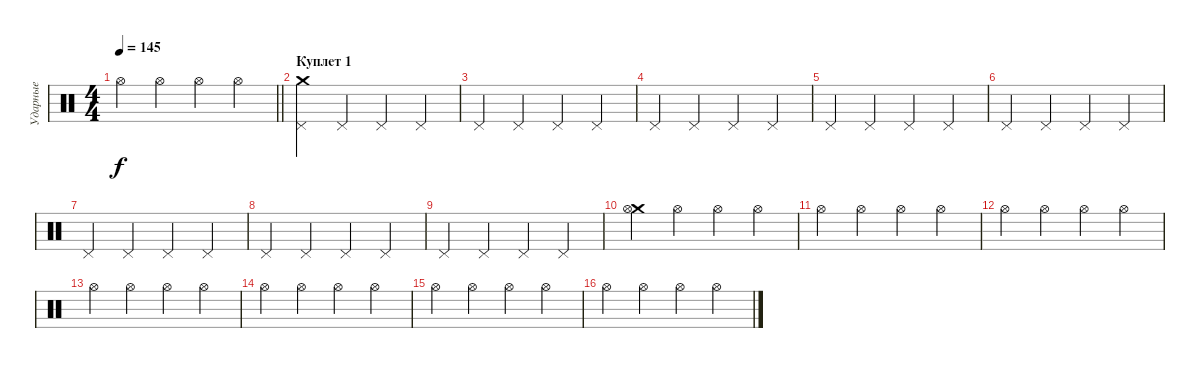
\track ("Ударные" "Ударные") {instrument percussion}
\staff {score}
\articulation defaults
\ts (4 4)
\tempo 145
\clef neutral
\barLineRight lightlight
\ks c "Hi-Hat (open)".4{dy f} "Hi-Hat (open)".4 "Hi-Hat (open)".4 "Hi-Hat (open)".4
|
\section ("" "Куплет 1")
("Crash medium (hit)" "Pedal Hi-Hat (hit)").4 "Pedal Hi-Hat (hit)".4 "Pedal Hi-Hat (hit)".4 "Pedal Hi-Hat (hit)".4 |
"Pedal Hi-Hat (hit)".4 "Pedal Hi-Hat (hit)".4 "Pedal Hi-Hat (hit)".4 "Pedal Hi-Hat (hit)".4 |
"Pedal Hi-Hat (hit)".4 "Pedal Hi-Hat (hit)".4 "Pedal Hi-Hat (hit)".4 "Pedal Hi-Hat (hit)".4 |
"Pedal Hi-Hat (hit)".4 "Pedal Hi-Hat (hit)".4 "Pedal Hi-Hat (hit)".4 "Pedal Hi-Hat (hit)".4 |
"Pedal Hi-Hat (hit)".4 "Pedal Hi-Hat (hit)".4 "Pedal Hi-Hat (hit)".4 "Pedal Hi-Hat (hit)".4 |
"Pedal Hi-Hat (hit)".4 "Pedal Hi-Hat (hit)".4 "Pedal Hi-Hat (hit)".4 "Pedal Hi-Hat (hit)".4 |
"Pedal Hi-Hat (hit)".4 "Pedal Hi-Hat (hit)".4 "Pedal Hi-Hat (hit)".4 "Pedal Hi-Hat (hit)".4 |
"Pedal Hi-Hat (hit)".4 "Pedal Hi-Hat (hit)".4 "Pedal Hi-Hat (hit)".4 "Pedal Hi-Hat (hit)".4 |
("Crash medium (hit)" "Hi-Hat (open)").4 "Hi-Hat (open)".4 "Hi-Hat (open)".4 "Hi-Hat (open)".4 |
"Hi-Hat (open)".4 "Hi-Hat (open)".4 "Hi-Hat (open)".4 "Hi-Hat (open)".4 |
"Hi-Hat (open)".4 "Hi-Hat (open)".4 "Hi-Hat (open)".4 "Hi-Hat (open)".4 |
"Hi-Hat (open)".4 "Hi-Hat (open)".4 "Hi-Hat (open)".4 "Hi-Hat (open)".4 |
"Hi-Hat (open)".4 "Hi-Hat (open)".4 "Hi-Hat (open)".4 "Hi-Hat (open)".4 |
"Hi-Hat (open)".4 "Hi-Hat (open)".4 "Hi-Hat (open)".4 "Hi-Hat (open)".4 |
"Hi-Hat (open)".4 "Hi-Hat (open)".4 "Hi-Hat (open)".4 "Hi-Hat (open)".4
